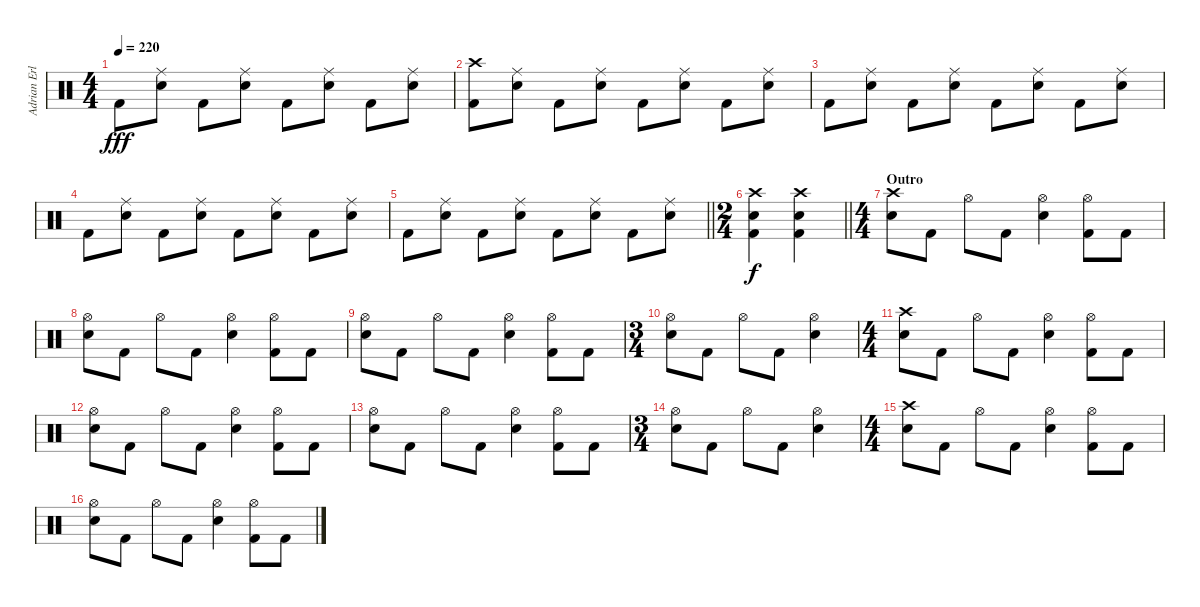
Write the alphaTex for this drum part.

\track ("Adrian Erlandsson" "Adrian Erl") {instrument percussion}
\staff {score}
\articulation defaults
\ts (4 4)
\tempo 220
\clef neutral
\ks c "Kick (hit) 2".8{dy fff}
("Ride (middle)" "Electric Snare (hit)").8 "Kick (hit) 2".8 ("Ride (middle)" "Electric Snare (hit)").8 "Kick (hit) 2".8 ("Ride (middle)" "Electric Snare (hit)").8 "Kick (hit) 2".8 ("Ride (middle)" "Electric Snare (hit)").8 |
("Crash high (hit)" "Kick (hit) 2").8 ("Ride (middle)" "Electric Snare (hit)").8 "Kick (hit) 2".8 ("Ride (middle)" "Electric Snare (hit)").8 "Kick (hit) 2".8 ("Ride (middle)" "Electric Snare (hit)").8 "Kick (hit) 2".8 ("Ride (middle)" "Electric Snare (hit)").8 |
"Kick (hit) 2".8 ("Ride (middle)" "Electric Snare (hit)").8 "Kick (hit) 2".8 ("Ride (middle)" "Electric Snare (hit)").8 "Kick (hit) 2".8 ("Ride (middle)" "Electric Snare (hit)").8 "Kick (hit) 2".8 ("Ride (middle)" "Electric Snare (hit)").8 |
"Kick (hit) 2".8 ("Ride (middle)" "Electric Snare (hit)").8 "Kick (hit) 2".8 ("Ride (middle)" "Electric Snare (hit)").8 "Kick (hit) 2".8 ("Ride (middle)" "Electric Snare (hit)").8 "Kick (hit) 2".8 ("Ride (middle)" "Electric Snare (hit)").8 |
\barLineRight lightlight "Kick (hit) 2".8
("Ride (middle)" "Electric Snare (hit)").8 "Kick (hit) 2".8 ("Ride (middle)" "Electric Snare (hit)").8 "Kick (hit) 2".8 ("Ride (middle)" "Electric Snare (hit)").8 "Kick (hit) 2".8 ("Ride (middle)" "Electric Snare (hit)").8 |
\ts (2 4)
\barLineRight lightlight
("Crash high (hit)" "Electric Snare (hit)" "Kick (hit) 2").4{dy f} ("Crash high (hit)" "Electric Snare (hit)" "Kick (hit) 2").4 |
\ts (4 4)
\section ("" "Outro")
("Crash high (hit)" "Electric Snare (hit)").8 "Kick (hit) 2".8 "Hi-Hat (open)".8 "Kick (hit) 2".8 ("Hi-Hat (open)" "Electric Snare (hit)").4 ("Hi-Hat (open)" "Kick (hit) 2").8 "Kick (hit) 2".8 |
("Hi-Hat (open)" "Electric Snare (hit)").8 "Kick (hit) 2".8 "Hi-Hat (open)".8 "Kick (hit) 2".8 ("Hi-Hat (open)" "Electric Snare (hit)").4 ("Hi-Hat (open)" "Kick (hit) 2").8 "Kick (hit) 2".8 |
("Hi-Hat (open)" "Electric Snare (hit)").8 "Kick (hit) 2".8 "Hi-Hat (open)".8 "Kick (hit) 2".8 ("Hi-Hat (open)" "Electric Snare (hit)").4 ("Hi-Hat (open)" "Kick (hit) 2").8 "Kick (hit) 2".8 |
\ts (3 4)
("Hi-Hat (open)" "Electric Snare (hit)").8 "Kick (hit) 2".8 "Hi-Hat (open)".8 "Kick (hit) 2".8 ("Hi-Hat (open)" "Electric Snare (hit)").4 |
\ts (4 4)
("Crash high (hit)" "Electric Snare (hit)").8 "Kick (hit) 2".8 "Hi-Hat (open)".8 "Kick (hit) 2".8 ("Hi-Hat (open)" "Electric Snare (hit)").4 ("Hi-Hat (open)" "Kick (hit) 2").8 "Kick (hit) 2".8 |
("Hi-Hat (open)" "Electric Snare (hit)").8 "Kick (hit) 2".8 "Hi-Hat (open)".8 "Kick (hit) 2".8 ("Hi-Hat (open)" "Electric Snare (hit)").4 ("Hi-Hat (open)" "Kick (hit) 2").8 "Kick (hit) 2".8 |
("Hi-Hat (open)" "Electric Snare (hit)").8 "Kick (hit) 2".8 "Hi-Hat (open)".8 "Kick (hit) 2".8 ("Hi-Hat (open)" "Electric Snare (hit)").4 ("Hi-Hat (open)" "Kick (hit) 2").8 "Kick (hit) 2".8 |
\ts (3 4)
("Hi-Hat (open)" "Electric Snare (hit)").8 "Kick (hit) 2".8 "Hi-Hat (open)".8 "Kick (hit) 2".8 ("Hi-Hat (open)" "Electric Snare (hit)").4 |
\ts (4 4)
("Crash high (hit)" "Electric Snare (hit)").8 "Kick (hit) 2".8 "Hi-Hat (open)".8 "Kick (hit) 2".8 ("Hi-Hat (open)" "Electric Snare (hit)").4 ("Hi-Hat (open)" "Kick (hit) 2").8 "Kick (hit) 2".8 |
("Hi-Hat (open)" "Electric Snare (hit)").8 "Kick (hit) 2".8 "Hi-Hat (open)".8 "Kick (hit) 2".8 ("Hi-Hat (open)" "Electric Snare (hit)").4 ("Hi-Hat (open)" "Kick (hit) 2").8 "Kick (hit) 2".8
